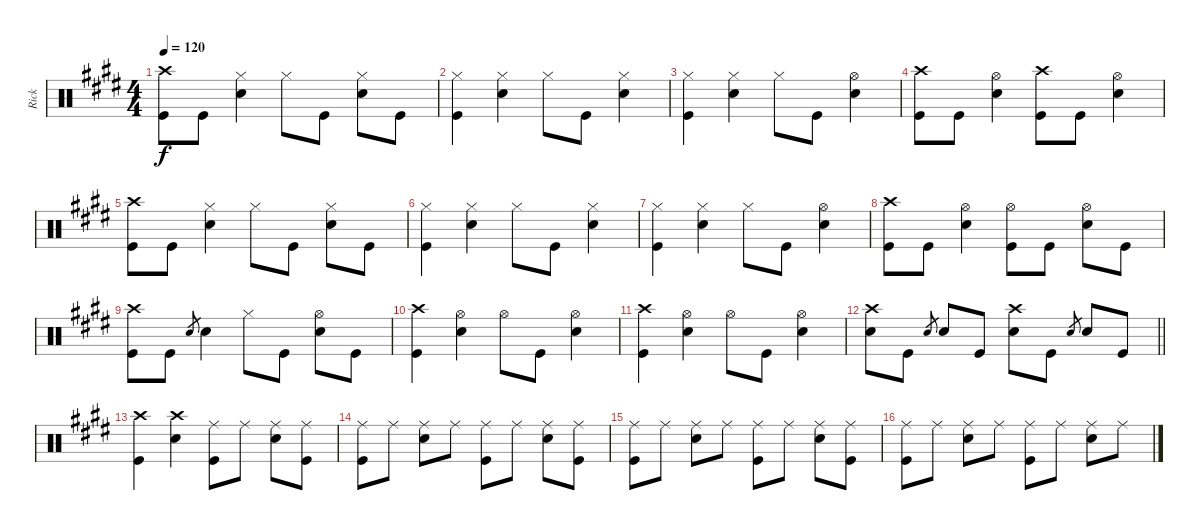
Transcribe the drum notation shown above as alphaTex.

\track ("Rick" "Rick") {instrument percussion}
\staff {score}
\articulation defaults
\ts (4 4)
\tempo 120
\clef neutral
\ks c#minor
("Crash high (hit)" "Kick (hit)").8{dy f} "Kick (hit)".8 ("Hi-Hat (closed)" "Snare (hit) 2").4 "Hi-Hat (closed)".8 "Kick (hit)".8 ("Hi-Hat (closed)" "Snare (hit) 2").8 "Kick (hit)".8 |
("Hi-Hat (closed)" "Kick (hit)").4 ("Hi-Hat (closed)" "Snare (hit) 2").4 "Hi-Hat (closed)".8 "Kick (hit)".8 ("Hi-Hat (closed)" "Snare (hit) 2").4 |
("Hi-Hat (closed)" "Kick (hit)").4 ("Hi-Hat (closed)" "Snare (hit) 2").4 "Hi-Hat (closed)".8 "Kick (hit)".8 ("Hi-Hat (open)" "Snare (hit) 2").4 |
("Crash high (hit)" "Kick (hit)").8 "Kick (hit)".8 ("Hi-Hat (open)" "Snare (hit) 2").4 ("Crash high (hit)" "Kick (hit)").8 "Kick (hit)".8 ("Hi-Hat (open)" "Snare (hit) 2").4 |
("Crash high (hit)" "Kick (hit)").8 "Kick (hit)".8 ("Hi-Hat (closed)" "Snare (hit) 2").4 "Hi-Hat (closed)".8 "Kick (hit)".8 ("Hi-Hat (closed)" "Snare (hit) 2").8 "Kick (hit)".8 |
("Hi-Hat (closed)" "Kick (hit)").4 ("Hi-Hat (closed)" "Snare (hit) 2").4 "Hi-Hat (closed)".8 "Kick (hit)".8 ("Hi-Hat (closed)" "Snare (hit) 2").4 |
("Hi-Hat (closed)" "Kick (hit)").4 ("Hi-Hat (closed)" "Snare (hit) 2").4 "Hi-Hat (closed)".8 "Kick (hit)".8 ("Hi-Hat (open)" "Snare (hit) 2").4 |
("Crash high (hit)" "Kick (hit)").8 "Kick (hit)".8 ("Hi-Hat (open)" "Snare (hit) 2").4 ("Hi-Hat (open)" "Kick (hit)").8 "Kick (hit)".8 ("Hi-Hat (open)" "Snare (hit) 2").8 "Kick (hit)".8 |
("Crash high (hit)" "Kick (hit)").8 "Kick (hit)".8 "Snare (hit) 2".8{gr} "Snare (hit) 2".4 "Hi-Hat (closed)".8 "Kick (hit)".8 ("Hi-Hat (open)" "Snare (hit) 2").8 "Kick (hit)".8 |
("Crash high (hit)" "Kick (hit)").4 ("Hi-Hat (open)" "Snare (hit) 2").4 "Hi-Hat (open)".8 "Kick (hit)".8 ("Hi-Hat (open)" "Snare (hit) 2").4 |
("Crash high (hit)" "Kick (hit)").4 ("Hi-Hat (open)" "Snare (hit) 2").4 "Hi-Hat (open)".8 "Kick (hit)".8 ("Hi-Hat (open)" "Snare (hit) 2").4 |
\barLineRight lightlight
("Crash high (hit)" "Snare (hit) 2").8 "Kick (hit)".8 "Snare (hit) 2".8{gr} "Snare (hit) 2".8 "Kick (hit)".8 ("Crash high (hit)" "Snare (hit) 2").8 "Kick (hit)".8 "Snare (hit) 2".8{gr} "Snare (hit) 2".8 "Kick (hit)".8 |
("Crash high (hit)" "Kick (hit)").4 ("Crash high (hit)" "Snare (hit) 2").4 ("Ride (middle)" "Kick (hit)").8 "Ride (middle)".8 ("Ride (middle)" "Snare (hit) 2").8 ("Ride (middle)" "Kick (hit)").8 |
("Ride (middle)" "Kick (hit)").8 "Ride (middle)".8 ("Ride (middle)" "Snare (hit) 2").8 "Ride (middle)".8 ("Ride (middle)" "Kick (hit)").8 "Ride (middle)".8 ("Ride (middle)" "Snare (hit) 2").8 ("Ride (middle)" "Kick (hit)").8 |
("Ride (middle)" "Kick (hit)").8 "Ride (middle)".8 ("Ride (middle)" "Snare (hit) 2").8 "Ride (middle)".8 ("Ride (middle)" "Kick (hit)").8 "Ride (middle)".8 ("Ride (middle)" "Snare (hit) 2").8 ("Ride (middle)" "Kick (hit)").8 |
("Ride (middle)" "Kick (hit)").8 "Ride (middle)".8 ("Ride (middle)" "Snare (hit) 2").8 "Ride (middle)".8 ("Ride (middle)" "Kick (hit)").8 "Ride (middle)".8 ("Ride (middle)" "Snare (hit) 2").8 "Ride (middle)".8
